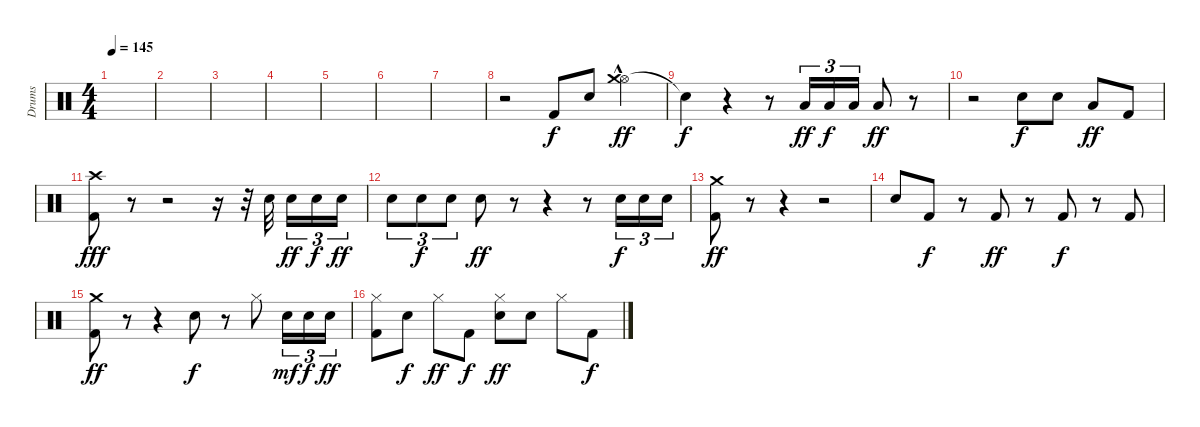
\track ("Drums" "Drums") {instrument percussion}
\staff {score}
\articulation defaults
\ts (4 4)
\tempo 145
\clef neutral
\ks c
|
|
|
|
|
|
|
r.2 "Kick (hit) 2".8 "Snare (hit) 2".8 ("Hi-Hat (open)"{hac} "Crash medium (hit)").4{dy ff} |
"Snare (hit)"{t}.4{dy f} r.4 r.8 "Low Tom (hit)".16{tu (3 2) dy ff} "Low Tom (hit)".16{tu (3 2) dy f} "Low Tom (hit)".16{tu (3 2)} "Low Floor Tom (hit)".8{dy ff} r.8 |
r.2 "Snare (hit) 2".8{dy f} "Snare (hit) 2".8 "Low Tom (hit)".8{dy ff} "Kick (hit) 2".8 |
("Crash high (hit)" "Kick (hit) 2").8{dy fff} r.8 r.2 r.16 r.32 "Snare (hit) 2".32 "Snare (hit) 2".16{tu (3 2) dy ff} "Snare (hit) 2".16{tu (3 2) dy f} "Snare (hit) 2".16{tu (3 2) dy ff} |
"Snare (hit) 2".8{tu (3 2)} "Snare (hit) 2".8{tu (3 2) dy f} "Snare (hit) 2".8{tu (3 2)} "Snare (hit) 2".8{dy ff} r.8 r.4 r.8 "Snare (hit) 2".16{tu (3 2) dy f} "Snare (hit) 2".16{tu (3 2)} "Snare (hit) 2".16{tu (3 2)} |
("Crash medium (hit)" "Kick (hit) 2").8{dy ff} r.8 r.4 r.2 |
"Snare (hit) 2".8 "Kick (hit) 2".8{dy f} r.8 "Kick (hit) 2".8{dy ff} r.8 "Kick (hit) 2".8{dy f} r.8 "Kick (hit) 2".8 |
("Crash medium (hit)" "Kick (hit) 2").8{dy ff} r.8 r.4 "Snare (hit) 2".8{dy f} r.8 "Hi-Hat (closed)".8 "Snare (hit) 2".16{tu (3 2) dy mf} "Snare (hit) 2".16{tu (3 2) dy f} "Snare (hit) 2".16{tu (3 2) dy ff} |
("Hi-Hat (closed)" "Kick (hit) 2").8 "Snare (hit) 2".8{dy f} "Hi-Hat (closed)".8{dy ff} "Kick (hit) 2".8{dy f} ("Hi-Hat (closed)" "Snare (hit) 2").8{dy ff} "Snare (hit) 2".8 "Hi-Hat (closed)".8 "Kick (hit) 2".8{dy f}
